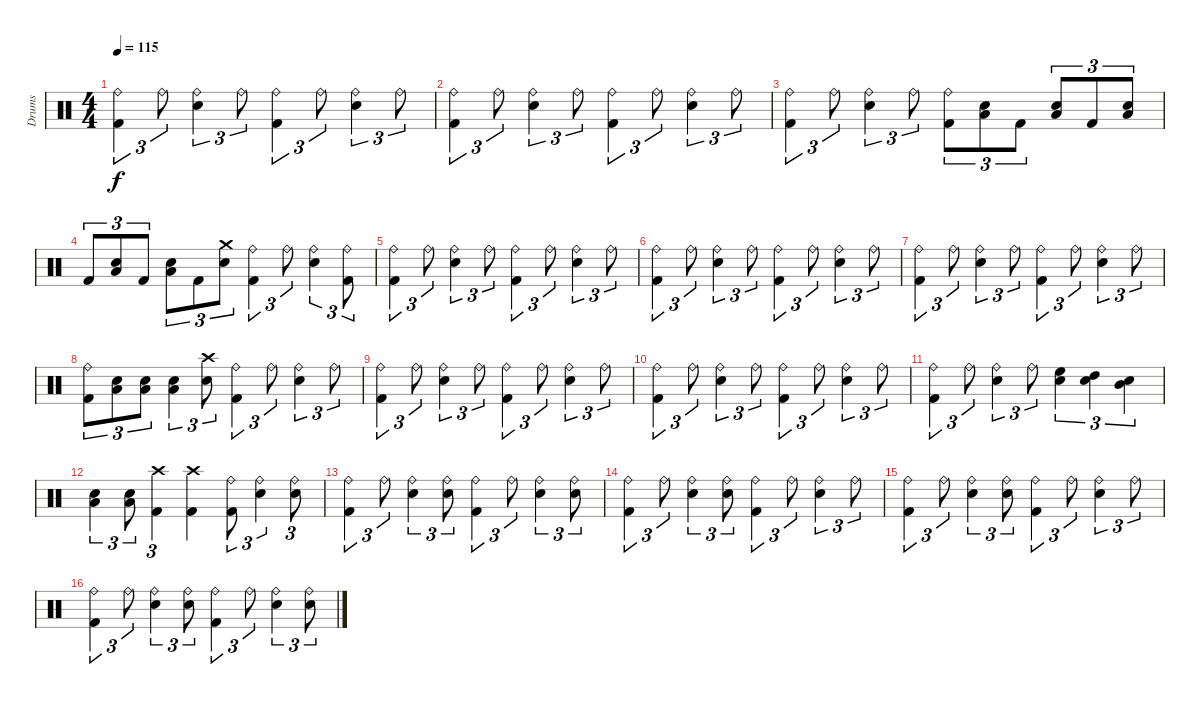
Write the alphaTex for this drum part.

\track ("Drums" "Drums") {instrument percussion}
\staff {score}
\articulation defaults
\ts (4 4)
\tempo 115
\clef neutral
\ks c
("Ride (bell)" "Kick (hit) 2").4{tu (3 2) dy f} "Ride (bell)".8{tu (3 2)} ("Ride (bell)" "Electric Snare (hit)").4{tu (3 2)} "Ride (bell)".8{tu (3 2)} ("Ride (bell)" "Kick (hit) 2").4{tu (3 2)} "Ride (bell)".8{tu (3 2)} ("Ride (bell)" "Electric Snare (hit)").4{tu (3 2)} "Ride (bell)".8{tu (3 2)} |
("Ride (bell)" "Kick (hit) 2").4{tu (3 2)} "Ride (bell)".8{tu (3 2)} ("Ride (bell)" "Electric Snare (hit)").4{tu (3 2)} "Ride (bell)".8{tu (3 2)} ("Ride (bell)" "Kick (hit) 2").4{tu (3 2)} "Ride (bell)".8{tu (3 2)} ("Ride (bell)" "Electric Snare (hit)").4{tu (3 2)} "Ride (bell)".8{tu (3 2)} |
("Ride (bell)" "Kick (hit) 2").4{tu (3 2)} "Ride (bell)".8{tu (3 2)} ("Ride (bell)" "Electric Snare (hit)").4{tu (3 2)} "Ride (bell)".8{tu (3 2)} ("Ride (bell)" "Kick (hit) 2").8{tu (3 2)} ("Low Floor Tom (hit)" "Electric Snare (hit)").8{tu (3 2)} "Kick (hit) 2".8{tu (3 2)} ("Low Floor Tom (hit)" "Electric Snare (hit)").8{tu (3 2)} "Kick (hit) 2".8{tu (3 2)} ("Low Floor Tom (hit)" "Electric Snare (hit)").8{tu (3 2)} |
"Kick (hit) 2".8{tu (3 2)} ("Low Floor Tom (hit)" "Electric Snare (hit)").8{tu (3 2)} "Kick (hit) 2".8{tu (3 2)} ("Low Floor Tom (hit)" "Electric Snare (hit)").8{tu (3 2)} "Kick (hit) 2".8{tu (3 2)} ("Crash medium (hit)" "Electric Snare (hit)").8{tu (3 2)} ("Ride (bell)" "Kick (hit) 2").4{tu (3 2)} "Ride (bell)".8{tu (3 2)} ("Ride (bell)" "Electric Snare (hit)").4{tu (3 2)} ("Ride (bell)" "Kick (hit) 2").8{tu (3 2)} |
("Ride (bell)" "Kick (hit) 2").4{tu (3 2)} "Ride (bell)".8{tu (3 2)} ("Ride (bell)" "Electric Snare (hit)").4{tu (3 2)} "Ride (bell)".8{tu (3 2)} ("Ride (bell)" "Kick (hit) 2").4{tu (3 2)} "Ride (bell)".8{tu (3 2)} ("Ride (bell)" "Electric Snare (hit)").4{tu (3 2)} "Ride (bell)".8{tu (3 2)} |
("Ride (bell)" "Kick (hit) 2").4{tu (3 2)} "Ride (bell)".8{tu (3 2)} ("Ride (bell)" "Electric Snare (hit)").4{tu (3 2)} "Ride (bell)".8{tu (3 2)} ("Ride (bell)" "Kick (hit) 2").4{tu (3 2)} "Ride (bell)".8{tu (3 2)} ("Ride (bell)" "Electric Snare (hit)").4{tu (3 2)} "Ride (bell)".8{tu (3 2)} |
("Ride (bell)" "Kick (hit) 2").4{tu (3 2)} "Ride (bell)".8{tu (3 2)} ("Ride (bell)" "Electric Snare (hit)").4{tu (3 2)} "Ride (bell)".8{tu (3 2)} ("Ride (bell)" "Kick (hit) 2").4{tu (3 2)} "Ride (bell)".8{tu (3 2)} ("Ride (bell)" "Electric Snare (hit)").4{tu (3 2)} "Ride (bell)".8{tu (3 2)} |
("Ride (bell)" "Kick (hit) 2").8{tu (3 2)} ("Low Floor Tom (hit)" "Electric Snare (hit)").8{tu (3 2)} ("Low Floor Tom (hit)" "Electric Snare (hit)").8{tu (3 2)} ("Low Floor Tom (hit)" "Electric Snare (hit)").4{tu (3 2)} ("Crash high (hit)" "Electric Snare (hit)").8{tu (3 2)} ("Ride (bell)" "Kick (hit) 2").4{tu (3 2)} "Ride (bell)".8{tu (3 2)} ("Ride (bell)" "Electric Snare (hit)").4{tu (3 2)} "Ride (bell)".8{tu (3 2)} |
("Ride (bell)" "Kick (hit) 2").4{tu (3 2)} "Ride (bell)".8{tu (3 2)} ("Ride (bell)" "Electric Snare (hit)").4{tu (3 2)} "Ride (bell)".8{tu (3 2)} ("Ride (bell)" "Kick (hit) 2").4{tu (3 2)} "Ride (bell)".8{tu (3 2)} ("Ride (bell)" "Electric Snare (hit)").4{tu (3 2)} "Ride (bell)".8{tu (3 2)} |
("Ride (bell)" "Kick (hit) 2").4{tu (3 2)} "Ride (bell)".8{tu (3 2)} ("Ride (bell)" "Electric Snare (hit)").4{tu (3 2)} "Ride (bell)".8{tu (3 2)} ("Ride (bell)" "Kick (hit) 2").4{tu (3 2)} "Ride (bell)".8{tu (3 2)} ("Ride (bell)" "Electric Snare (hit)").4{tu (3 2)} "Ride (bell)".8{tu (3 2)} |
("Ride (bell)" "Kick (hit) 2").4{tu (3 2)} "Ride (bell)".8{tu (3 2)} ("Ride (bell)" "Electric Snare (hit)").4{tu (3 2)} "Ride (bell)".8{tu (3 2)} ("High Floor Tom (hit)" "Electric Snare (hit)").4{tu (3 2)} ("High Tom (hit)" "Electric Snare (hit)").4{tu (3 2)} ("Mid Tom (hit)" "Electric Snare (hit)").4{tu (3 2)} |
("Low Tom (hit)" "Electric Snare (hit)").4{tu (3 2)} ("Low Floor Tom (hit)" "Electric Snare (hit)").8{tu (3 2)} ("Crash high (hit)" "Kick (hit) 2").4{tu (3 2)} ("Crash high (hit)" "Kick (hit) 2").4 ("Ride (bell)" "Kick (hit) 2").8{tu (3 2)} ("Ride (bell)" "Electric Snare (hit)").4{tu (3 2)} ("Ride (bell)" "Electric Snare (hit)").8{tu (3 2)} |
("Ride (bell)" "Kick (hit) 2").4{tu (3 2)} "Ride (bell)".8{tu (3 2)} ("Ride (bell)" "Electric Snare (hit)").4{tu (3 2)} ("Ride (bell)" "Electric Snare (hit)").8{tu (3 2)} ("Ride (bell)" "Kick (hit) 2").4{tu (3 2)} "Ride (bell)".8{tu (3 2)} ("Ride (bell)" "Electric Snare (hit)").4{tu (3 2)} ("Ride (bell)" "Electric Snare (hit)").8{tu (3 2)} |
("Ride (bell)" "Kick (hit) 2").4{tu (3 2)} "Ride (bell)".8{tu (3 2)} ("Ride (bell)" "Electric Snare (hit)").4{tu (3 2)} ("Ride (bell)" "Electric Snare (hit)").8{tu (3 2)} ("Ride (bell)" "Kick (hit) 2").4{tu (3 2)} "Ride (bell)".8{tu (3 2)} ("Ride (bell)" "Electric Snare (hit)").4{tu (3 2)} "Ride (bell)".8{tu (3 2)} |
("Ride (bell)" "Kick (hit) 2").4{tu (3 2)} "Ride (bell)".8{tu (3 2)} ("Ride (bell)" "Electric Snare (hit)").4{tu (3 2)} ("Ride (bell)" "Electric Snare (hit)").8{tu (3 2)} ("Ride (bell)" "Kick (hit) 2").4{tu (3 2)} "Ride (bell)".8{tu (3 2)} ("Ride (bell)" "Electric Snare (hit)").4{tu (3 2)} "Ride (bell)".8{tu (3 2)} |
("Ride (bell)" "Kick (hit) 2").4{tu (3 2)} "Ride (bell)".8{tu (3 2)} ("Ride (bell)" "Electric Snare (hit)").4{tu (3 2)} ("Ride (bell)" "Electric Snare (hit)").8{tu (3 2)} ("Ride (bell)" "Kick (hit) 2").4{tu (3 2)} "Ride (bell)".8{tu (3 2)} ("Ride (bell)" "Electric Snare (hit)").4{tu (3 2)} ("Ride (bell)" "Electric Snare (hit)").8{tu (3 2)}
